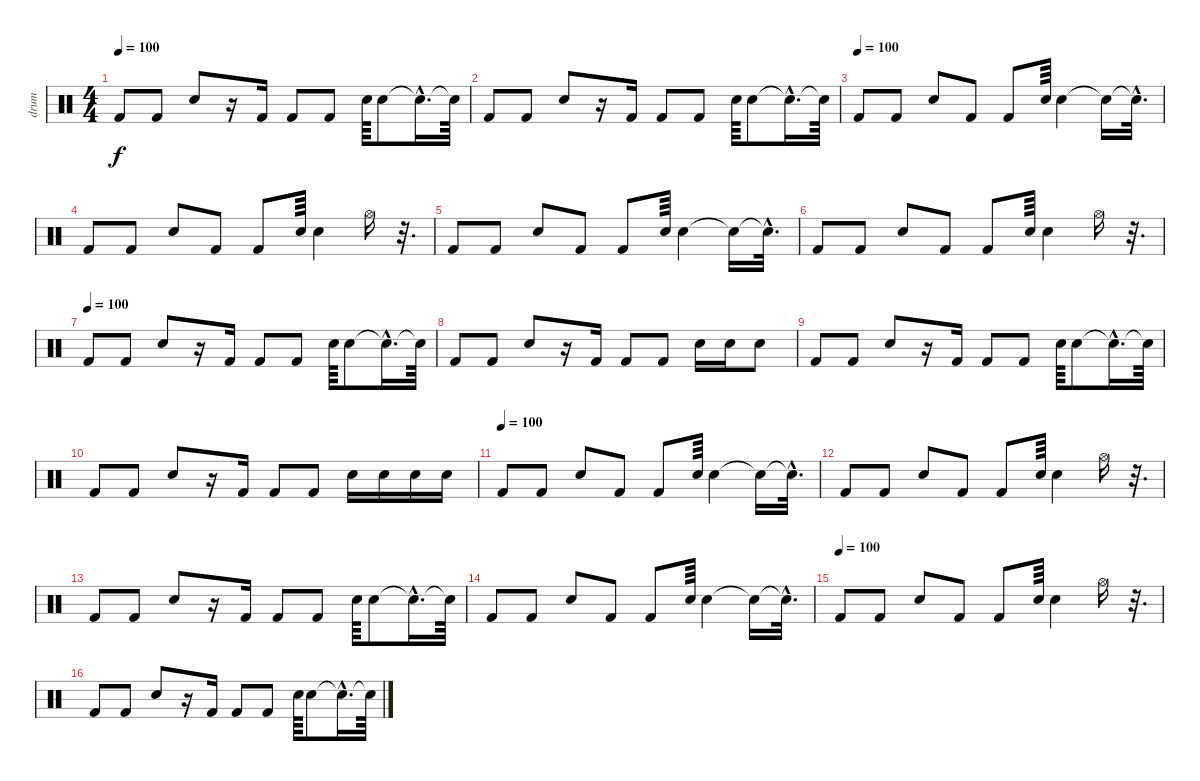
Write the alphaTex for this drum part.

\track ("drum" "drum") {instrument percussion}
\staff {score}
\articulation defaults
\ts (4 4)
\tempo 100
\clef neutral
\ks c "Kick (hit) 2".8{dy f volume 16} "Kick (hit) 2".8 "Snare (hit) 2".8
r.16 "Kick (hit) 2".16 "Kick (hit) 2".8 "Kick (hit) 2".8 "Snare (hit) 2".64 "Snare (hit) 2".8 "Snare (hit) 2"{hac t}.16{d} "Snare (hit) 2"{t}.64 |
"Kick (hit) 2".8{volume 16} "Kick (hit) 2".8 "Snare (hit) 2".8 r.16 "Kick (hit) 2".16 "Kick (hit) 2".8 "Kick (hit) 2".8 "Snare (hit) 2".64 "Snare (hit) 2".8 "Snare (hit) 2"{hac t}.16{d} "Snare (hit) 2"{t}.64 |
\tempo (100)
"Kick (hit) 2".8{volume 16} "Kick (hit) 2".8 "Snare (hit) 2".8 "Kick (hit) 2".8 "Kick (hit) 2".8 "Snare (hit) 2".64 "Snare (hit) 2".4 "Snare (hit) 2"{t}.16 "Snare (hit) 2"{hac t}.32{d} |
"Kick (hit) 2".8{volume 16} "Kick (hit) 2".8 "Snare (hit) 2".8 "Kick (hit) 2".8 "Kick (hit) 2".8 "Snare (hit) 2".64 "Snare (hit) 2".4 "Hi-Hat (open)".16 r.32{d} |
"Kick (hit) 2".8{volume 16} "Kick (hit) 2".8 "Snare (hit) 2".8 "Kick (hit) 2".8 "Kick (hit) 2".8 "Snare (hit) 2".64 "Snare (hit) 2".4 "Snare (hit) 2"{t}.16 "Snare (hit) 2"{hac t}.32{d} |
"Kick (hit) 2".8{volume 16} "Kick (hit) 2".8 "Snare (hit) 2".8 "Kick (hit) 2".8 "Kick (hit) 2".8 "Snare (hit) 2".64 "Snare (hit) 2".4 "Hi-Hat (open)".16 r.32{d} |
\tempo (100)
"Kick (hit) 2".8{volume 16} "Kick (hit) 2".8 "Snare (hit) 2".8 r.16 "Kick (hit) 2".16 "Kick (hit) 2".8 "Kick (hit) 2".8 "Snare (hit) 2".64 "Snare (hit) 2".8 "Snare (hit) 2"{hac t}.16{d} "Snare (hit) 2"{t}.64 |
"Kick (hit) 2".8{volume 16} "Kick (hit) 2".8 "Snare (hit) 2".8 r.16 "Kick (hit) 2".16 "Kick (hit) 2".8 "Kick (hit) 2".8 "Snare (hit) 2".16 "Snare (hit) 2".16 "Snare (hit) 2".8 |
"Kick (hit) 2".8{volume 16} "Kick (hit) 2".8 "Snare (hit) 2".8 r.16 "Kick (hit) 2".16 "Kick (hit) 2".8 "Kick (hit) 2".8 "Snare (hit) 2".64 "Snare (hit) 2".8 "Snare (hit) 2"{hac t}.16{d} "Snare (hit) 2"{t}.64 |
"Kick (hit) 2".8{volume 16} "Kick (hit) 2".8 "Snare (hit) 2".8 r.16 "Kick (hit) 2".16 "Kick (hit) 2".8 "Kick (hit) 2".8 "Snare (hit) 2".16 "Snare (hit) 2".16 "Snare (hit) 2".16 "Snare (hit) 2".16 |
\tempo (100)
"Kick (hit) 2".8{volume 16} "Kick (hit) 2".8 "Snare (hit) 2".8 "Kick (hit) 2".8 "Kick (hit) 2".8 "Snare (hit) 2".64 "Snare (hit) 2".4 "Snare (hit) 2"{t}.16 "Snare (hit) 2"{hac t}.32{d} |
"Kick (hit) 2".8{volume 16} "Kick (hit) 2".8 "Snare (hit) 2".8 "Kick (hit) 2".8 "Kick (hit) 2".8 "Snare (hit) 2".64 "Snare (hit) 2".4 "Hi-Hat (open)".16 r.32{d} |
"Kick (hit) 2".8{volume 16} "Kick (hit) 2".8 "Snare (hit) 2".8 r.16 "Kick (hit) 2".16 "Kick (hit) 2".8 "Kick (hit) 2".8 "Snare (hit) 2".64 "Snare (hit) 2".8 "Snare (hit) 2"{hac t}.16{d} "Snare (hit) 2"{t}.64 |
"Kick (hit) 2".8{volume 16} "Kick (hit) 2".8 "Snare (hit) 2".8 "Kick (hit) 2".8 "Kick (hit) 2".8 "Snare (hit) 2".64 "Snare (hit) 2".4 "Snare (hit) 2"{t}.16 "Snare (hit) 2"{hac t}.32{d} |
\tempo (100)
"Kick (hit) 2".8{volume 16} "Kick (hit) 2".8 "Snare (hit) 2".8 "Kick (hit) 2".8 "Kick (hit) 2".8 "Snare (hit) 2".64 "Snare (hit) 2".4 "Hi-Hat (open)".16 r.32{d} |
"Kick (hit) 2".8{volume 16} "Kick (hit) 2".8 "Snare (hit) 2".8 r.16 "Kick (hit) 2".16 "Kick (hit) 2".8 "Kick (hit) 2".8 "Snare (hit) 2".64 "Snare (hit) 2".8 "Snare (hit) 2"{hac t}.16{d} "Snare (hit) 2"{t}.64
